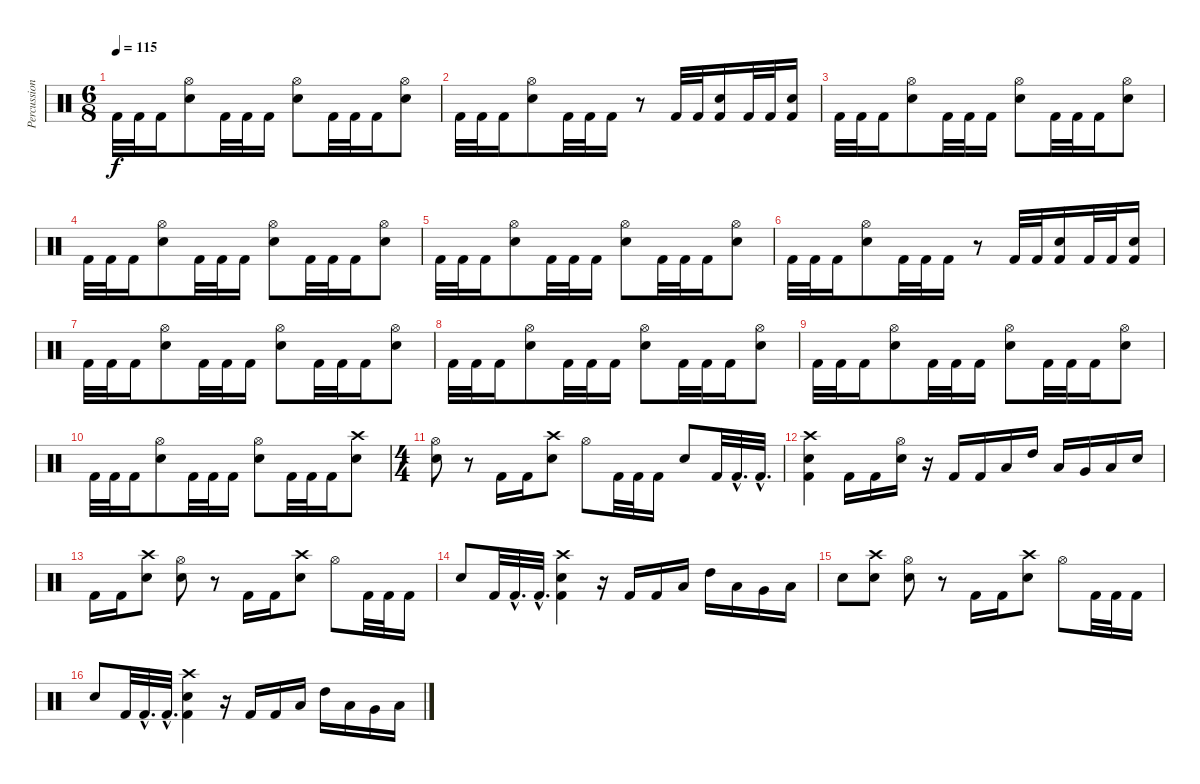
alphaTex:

\track ("Percussioni" "Percussion") {instrument percussion}
\staff {score}
\articulation defaults
\ts (6 8)
\tempo 115
\clef neutral
\ks c "Kick (hit) 2".32{dy f} "Kick (hit) 2".32 "Kick (hit) 2".16
("Hi-Hat (open)" "Electric Snare (hit)").8 "Kick (hit) 2".32 "Kick (hit) 2".32 "Kick (hit) 2".16 ("Hi-Hat (open)" "Electric Snare (hit)").8 "Kick (hit) 2".32 "Kick (hit) 2".32 "Kick (hit) 2".16 ("Hi-Hat (open)" "Electric Snare (hit)").8 |
"Kick (hit) 2".32 "Kick (hit) 2".32 "Kick (hit) 2".16 ("Hi-Hat (open)" "Electric Snare (hit)").8 "Kick (hit) 2".32 "Kick (hit) 2".32 "Kick (hit) 2".16 r.8 "Kick (hit) 2".32 "Kick (hit) 2".32 ("Electric Snare (hit)" "Kick (hit) 2").16 "Kick (hit) 2".32 "Kick (hit) 2".32 ("Electric Snare (hit)" "Kick (hit) 2").16 |
"Kick (hit) 2".32 "Kick (hit) 2".32 "Kick (hit) 2".16 ("Hi-Hat (open)" "Electric Snare (hit)").8 "Kick (hit) 2".32 "Kick (hit) 2".32 "Kick (hit) 2".16 ("Hi-Hat (open)" "Electric Snare (hit)").8 "Kick (hit) 2".32 "Kick (hit) 2".32 "Kick (hit) 2".16 ("Hi-Hat (open)" "Electric Snare (hit)").8 |
"Kick (hit) 2".32 "Kick (hit) 2".32 "Kick (hit) 2".16 ("Hi-Hat (open)" "Electric Snare (hit)").8 "Kick (hit) 2".32 "Kick (hit) 2".32 "Kick (hit) 2".16 ("Hi-Hat (open)" "Electric Snare (hit)").8 "Kick (hit) 2".32 "Kick (hit) 2".32 "Kick (hit) 2".16 ("Hi-Hat (open)" "Electric Snare (hit)").8 |
"Kick (hit) 2".32 "Kick (hit) 2".32 "Kick (hit) 2".16 ("Hi-Hat (open)" "Electric Snare (hit)").8 "Kick (hit) 2".32 "Kick (hit) 2".32 "Kick (hit) 2".16 ("Hi-Hat (open)" "Electric Snare (hit)").8 "Kick (hit) 2".32 "Kick (hit) 2".32 "Kick (hit) 2".16 ("Hi-Hat (open)" "Electric Snare (hit)").8 |
"Kick (hit) 2".32 "Kick (hit) 2".32 "Kick (hit) 2".16 ("Hi-Hat (open)" "Electric Snare (hit)").8 "Kick (hit) 2".32 "Kick (hit) 2".32 "Kick (hit) 2".16 r.8 "Kick (hit) 2".32 "Kick (hit) 2".32 ("Electric Snare (hit)" "Kick (hit) 2").16 "Kick (hit) 2".32 "Kick (hit) 2".32 ("Electric Snare (hit)" "Kick (hit) 2").16 |
"Kick (hit) 2".32 "Kick (hit) 2".32 "Kick (hit) 2".16 ("Hi-Hat (open)" "Electric Snare (hit)").8 "Kick (hit) 2".32 "Kick (hit) 2".32 "Kick (hit) 2".16 ("Hi-Hat (open)" "Electric Snare (hit)").8 "Kick (hit) 2".32 "Kick (hit) 2".32 "Kick (hit) 2".16 ("Hi-Hat (open)" "Electric Snare (hit)").8 |
"Kick (hit) 2".32 "Kick (hit) 2".32 "Kick (hit) 2".16 ("Hi-Hat (open)" "Electric Snare (hit)").8 "Kick (hit) 2".32 "Kick (hit) 2".32 "Kick (hit) 2".16 ("Hi-Hat (open)" "Electric Snare (hit)").8 "Kick (hit) 2".32 "Kick (hit) 2".32 "Kick (hit) 2".16 ("Hi-Hat (open)" "Electric Snare (hit)").8 |
"Kick (hit) 2".32 "Kick (hit) 2".32 "Kick (hit) 2".16 ("Hi-Hat (open)" "Electric Snare (hit)").8 "Kick (hit) 2".32 "Kick (hit) 2".32 "Kick (hit) 2".16 ("Hi-Hat (open)" "Electric Snare (hit)").8 "Kick (hit) 2".32 "Kick (hit) 2".32 "Kick (hit) 2".16 ("Hi-Hat (open)" "Electric Snare (hit)").8 |
"Kick (hit) 2".32 "Kick (hit) 2".32 "Kick (hit) 2".16 ("Hi-Hat (open)" "Electric Snare (hit)").8 "Kick (hit) 2".32 "Kick (hit) 2".32 "Kick (hit) 2".16 ("Hi-Hat (open)" "Electric Snare (hit)").8 "Kick (hit) 2".32 "Kick (hit) 2".32 "Kick (hit) 2".16 ("Crash high (hit)" "Electric Snare (hit)").8 |
\ts (4 4)
("Hi-Hat (open)" "Electric Snare (hit)").8 r.8 "Kick (hit) 2".16 "Kick (hit) 2".16 ("Crash high (hit)" "Electric Snare (hit)").8 "Hi-Hat (open)".8 "Kick (hit) 2".32 "Kick (hit) 2".32 "Kick (hit) 2".16 "Electric Snare (hit)".8 "Kick (hit) 2".32 "Kick (hit) 2"{hac}.32{d} "Kick (hit) 2"{hac}.32{d} |
("Crash high (hit)" "Electric Snare (hit)" "Kick (hit) 2").4 "Kick (hit) 2".16 "Kick (hit) 2".16 ("Hi-Hat (open)" "Electric Snare (hit)").16 r.16 "Kick (hit) 2".16 "Kick (hit) 2".16 "Low Tom (hit)".16 "High Tom (hit)".16 "Low Tom (hit)".16 "Very Low Tom (hit)".16 "Low Tom (hit)".16 "Electric Snare (hit)".16 |
"Kick (hit) 2".16 "Kick (hit) 2".16 ("Crash high (hit)" "Electric Snare (hit)").8 ("Hi-Hat (open)" "Electric Snare (hit)").8 r.8 "Kick (hit) 2".16 "Kick (hit) 2".16 ("Crash high (hit)" "Electric Snare (hit)").8 "Hi-Hat (open)".8 "Kick (hit) 2".32 "Kick (hit) 2".32 "Kick (hit) 2".16 |
"Electric Snare (hit)".8 "Kick (hit) 2".32 "Kick (hit) 2"{hac}.32{d} "Kick (hit) 2"{hac}.32{d} ("Crash high (hit)" "Electric Snare (hit)" "Kick (hit) 2").4 r.16 "Kick (hit) 2".16 "Kick (hit) 2".16 "Low Tom (hit)".16 "High Tom (hit)".16 "Low Tom (hit)".16 "Very Low Tom (hit)".16 "Low Tom (hit)".16 |
"Electric Snare (hit)".8 ("Crash high (hit)" "Electric Snare (hit)").8 ("Hi-Hat (open)" "Electric Snare (hit)").8 r.8 "Kick (hit) 2".16 "Kick (hit) 2".16 ("Crash high (hit)" "Electric Snare (hit)").8 "Hi-Hat (open)".8 "Kick (hit) 2".32 "Kick (hit) 2".32 "Kick (hit) 2".16 |
"Electric Snare (hit)".8 "Kick (hit) 2".32 "Kick (hit) 2"{hac}.32{d} "Kick (hit) 2"{hac}.32{d} ("Crash high (hit)" "Electric Snare (hit)" "Kick (hit) 2").4 r.16 "Kick (hit) 2".16 "Kick (hit) 2".16 "Low Tom (hit)".16 "High Tom (hit)".16 "Low Tom (hit)".16 "Very Low Tom (hit)".16 "Low Tom (hit)".16
